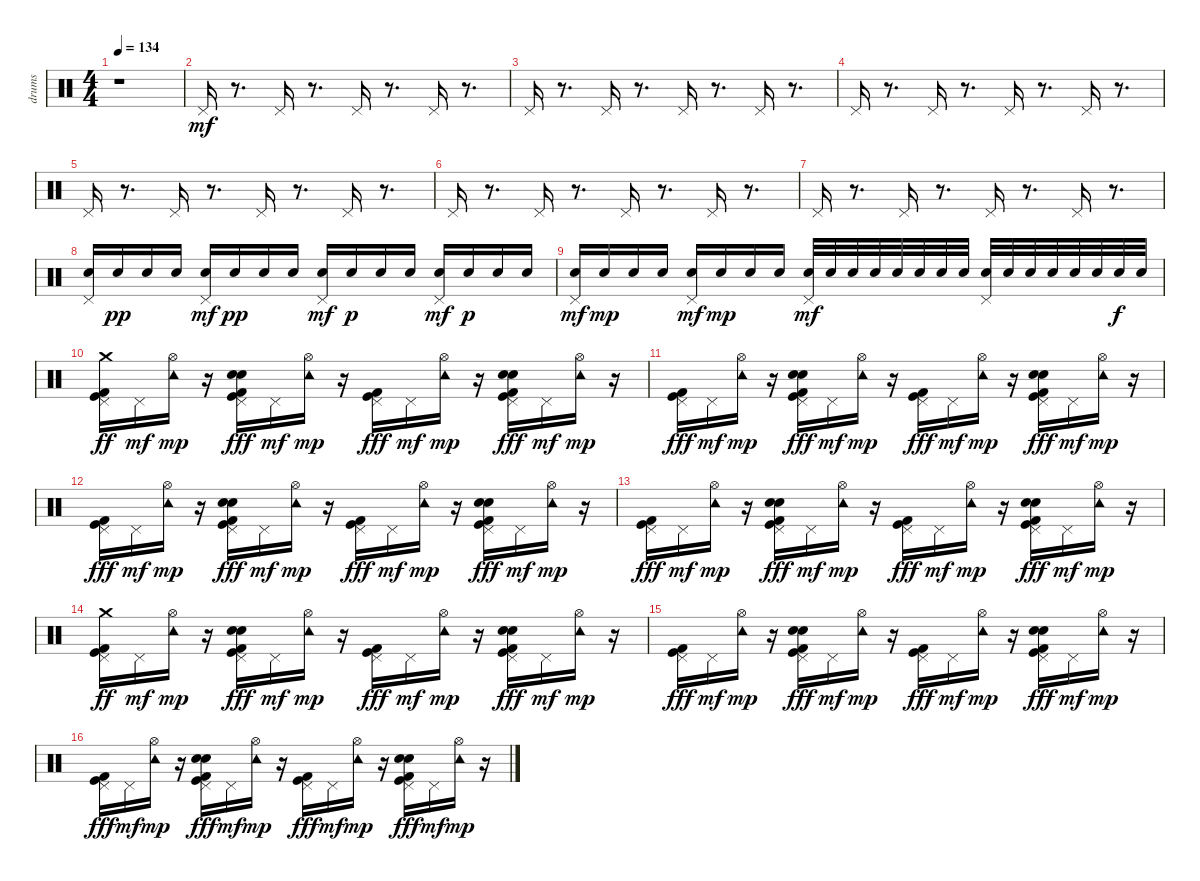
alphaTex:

\track ("drums" "drums") {instrument percussion}
\staff {score}
\articulation defaults
\ts (4 4)
\tempo 134
\clef neutral
\ks c
r.1{dy mf} |
"Pedal Hi-Hat (hit)".16 r.8{d} "Pedal Hi-Hat (hit)".16 r.8{d} "Pedal Hi-Hat (hit)".16 r.8{d} "Pedal Hi-Hat (hit)".16 r.8{d} |
"Pedal Hi-Hat (hit)".16 r.8{d} "Pedal Hi-Hat (hit)".16 r.8{d} "Pedal Hi-Hat (hit)".16 r.8{d} "Pedal Hi-Hat (hit)".16 r.8{d} |
"Pedal Hi-Hat (hit)".16 r.8{d} "Pedal Hi-Hat (hit)".16 r.8{d} "Pedal Hi-Hat (hit)".16 r.8{d} "Pedal Hi-Hat (hit)".16 r.8{d} |
"Pedal Hi-Hat (hit)".16 r.8{d} "Pedal Hi-Hat (hit)".16 r.8{d} "Pedal Hi-Hat (hit)".16 r.8{d} "Pedal Hi-Hat (hit)".16 r.8{d} |
"Pedal Hi-Hat (hit)".16 r.8{d} "Pedal Hi-Hat (hit)".16 r.8{d} "Pedal Hi-Hat (hit)".16 r.8{d} "Pedal Hi-Hat (hit)".16 r.8{d} |
"Pedal Hi-Hat (hit)".16 r.8{d} "Pedal Hi-Hat (hit)".16 r.8{d} "Pedal Hi-Hat (hit)".16 r.8{d} "Pedal Hi-Hat (hit)".16 r.8{d} |
("Electric Snare (hit)" "Pedal Hi-Hat (hit)").16 "Electric Snare (hit)".16{dy pp} "Electric Snare (hit)".16 "Electric Snare (hit)".16 ("Electric Snare (hit)" "Pedal Hi-Hat (hit)").16{dy mf} "Electric Snare (hit)".16{dy pp} "Electric Snare (hit)".16 "Electric Snare (hit)".16 ("Electric Snare (hit)" "Pedal Hi-Hat (hit)").16{dy mf} "Electric Snare (hit)".16{dy p} "Electric Snare (hit)".16 "Electric Snare (hit)".16 ("Electric Snare (hit)" "Pedal Hi-Hat (hit)").16{dy mf} "Electric Snare (hit)".16{dy p} "Electric Snare (hit)".16 "Electric Snare (hit)".16 |
("Electric Snare (hit)" "Pedal Hi-Hat (hit)").16{dy mf} "Electric Snare (hit)".16{dy mp} "Electric Snare (hit)".16 "Electric Snare (hit)".16 ("Electric Snare (hit)" "Pedal Hi-Hat (hit)").16{dy mf} "Electric Snare (hit)".16{dy mp} "Electric Snare (hit)".16 "Electric Snare (hit)".16 ("Electric Snare (hit)" "Pedal Hi-Hat (hit)").32{dy mf} "Electric Snare (hit)".32 "Electric Snare (hit)".32 "Electric Snare (hit)".32 "Electric Snare (hit)".32 "Electric Snare (hit)".32 "Electric Snare (hit)".32 "Electric Snare (hit)".32 ("Electric Snare (hit)" "Pedal Hi-Hat (hit)").32 "Electric Snare (hit)".32 "Electric Snare (hit)".32 "Electric Snare (hit)".32 "Electric Snare (hit)".32 "Electric Snare (hit)".32 "Electric Snare (hit)".32{dy f} "Electric Snare (hit)".32 |
("Kick (hit)" "Kick (hit) 2" "Pedal Hi-Hat (hit)" "Crash medium (hit)").16{dy ff} "Pedal Hi-Hat (hit)".16{dy mf} ("Hi-Hat (open)" "Tambourine (hit)").16{dy mp} r.16 ("Electric Snare (hit)" "Kick (hit)" "Kick (hit) 2" "Hand Clap (hit)" "Pedal Hi-Hat (hit)").16{dy fff} "Pedal Hi-Hat (hit)".16{dy mf} ("Hi-Hat (open)" "Tambourine (hit)").16{dy mp} r.16 ("Kick (hit)" "Kick (hit) 2" "Pedal Hi-Hat (hit)").16{dy fff} "Pedal Hi-Hat (hit)".16{dy mf} ("Hi-Hat (open)" "Tambourine (hit)").16{dy mp} r.16 ("Electric Snare (hit)" "Kick (hit)" "Kick (hit) 2" "Hand Clap (hit)" "Pedal Hi-Hat (hit)").16{dy fff} "Pedal Hi-Hat (hit)".16{dy mf} ("Hi-Hat (open)" "Tambourine (hit)").16{dy mp} r.16 |
("Kick (hit)" "Kick (hit) 2" "Pedal Hi-Hat (hit)").16{dy fff} "Pedal Hi-Hat (hit)".16{dy mf} ("Hi-Hat (open)" "Tambourine (hit)").16{dy mp} r.16 ("Electric Snare (hit)" "Kick (hit)" "Kick (hit) 2" "Hand Clap (hit)" "Pedal Hi-Hat (hit)").16{dy fff} "Pedal Hi-Hat (hit)".16{dy mf} ("Hi-Hat (open)" "Tambourine (hit)").16{dy mp} r.16 ("Kick (hit)" "Kick (hit) 2" "Pedal Hi-Hat (hit)").16{dy fff} "Pedal Hi-Hat (hit)".16{dy mf} ("Hi-Hat (open)" "Tambourine (hit)").16{dy mp} r.16 ("Electric Snare (hit)" "Kick (hit)" "Kick (hit) 2" "Hand Clap (hit)" "Pedal Hi-Hat (hit)").16{dy fff} "Pedal Hi-Hat (hit)".16{dy mf} ("Hi-Hat (open)" "Tambourine (hit)").16{dy mp} r.16 |
("Kick (hit)" "Kick (hit) 2" "Pedal Hi-Hat (hit)").16{dy fff} "Pedal Hi-Hat (hit)".16{dy mf} ("Hi-Hat (open)" "Tambourine (hit)").16{dy mp} r.16 ("Electric Snare (hit)" "Kick (hit)" "Kick (hit) 2" "Hand Clap (hit)" "Pedal Hi-Hat (hit)").16{dy fff} "Pedal Hi-Hat (hit)".16{dy mf} ("Hi-Hat (open)" "Tambourine (hit)").16{dy mp} r.16 ("Kick (hit)" "Kick (hit) 2" "Pedal Hi-Hat (hit)").16{dy fff} "Pedal Hi-Hat (hit)".16{dy mf} ("Hi-Hat (open)" "Tambourine (hit)").16{dy mp} r.16 ("Electric Snare (hit)" "Kick (hit)" "Kick (hit) 2" "Hand Clap (hit)" "Pedal Hi-Hat (hit)").16{dy fff} "Pedal Hi-Hat (hit)".16{dy mf} ("Hi-Hat (open)" "Tambourine (hit)").16{dy mp} r.16 |
("Kick (hit)" "Kick (hit) 2" "Pedal Hi-Hat (hit)").16{dy fff} "Pedal Hi-Hat (hit)".16{dy mf} ("Hi-Hat (open)" "Tambourine (hit)").16{dy mp} r.16 ("Electric Snare (hit)" "Kick (hit)" "Kick (hit) 2" "Hand Clap (hit)" "Pedal Hi-Hat (hit)").16{dy fff} "Pedal Hi-Hat (hit)".16{dy mf} ("Hi-Hat (open)" "Tambourine (hit)").16{dy mp} r.16 ("Kick (hit)" "Kick (hit) 2" "Pedal Hi-Hat (hit)").16{dy fff} "Pedal Hi-Hat (hit)".16{dy mf} ("Hi-Hat (open)" "Tambourine (hit)").16{dy mp} r.16 ("Electric Snare (hit)" "Kick (hit)" "Kick (hit) 2" "Hand Clap (hit)" "Pedal Hi-Hat (hit)").16{dy fff} "Pedal Hi-Hat (hit)".16{dy mf} ("Hi-Hat (open)" "Tambourine (hit)").16{dy mp} r.16 |
("Kick (hit)" "Kick (hit) 2" "Pedal Hi-Hat (hit)" "Crash medium (hit)").16{dy ff} "Pedal Hi-Hat (hit)".16{dy mf} ("Hi-Hat (open)" "Tambourine (hit)").16{dy mp} r.16 ("Electric Snare (hit)" "Kick (hit)" "Kick (hit) 2" "Hand Clap (hit)" "Pedal Hi-Hat (hit)").16{dy fff} "Pedal Hi-Hat (hit)".16{dy mf} ("Hi-Hat (open)" "Tambourine (hit)").16{dy mp} r.16 ("Kick (hit)" "Kick (hit) 2" "Pedal Hi-Hat (hit)").16{dy fff} "Pedal Hi-Hat (hit)".16{dy mf} ("Hi-Hat (open)" "Tambourine (hit)").16{dy mp} r.16 ("Electric Snare (hit)" "Kick (hit)" "Kick (hit) 2" "Hand Clap (hit)" "Pedal Hi-Hat (hit)").16{dy fff} "Pedal Hi-Hat (hit)".16{dy mf} ("Hi-Hat (open)" "Tambourine (hit)").16{dy mp} r.16 |
("Kick (hit)" "Kick (hit) 2" "Pedal Hi-Hat (hit)").16{dy fff} "Pedal Hi-Hat (hit)".16{dy mf} ("Hi-Hat (open)" "Tambourine (hit)").16{dy mp} r.16 ("Electric Snare (hit)" "Kick (hit)" "Kick (hit) 2" "Hand Clap (hit)" "Pedal Hi-Hat (hit)").16{dy fff} "Pedal Hi-Hat (hit)".16{dy mf} ("Hi-Hat (open)" "Tambourine (hit)").16{dy mp} r.16 ("Kick (hit)" "Kick (hit) 2" "Pedal Hi-Hat (hit)").16{dy fff} "Pedal Hi-Hat (hit)".16{dy mf} ("Hi-Hat (open)" "Tambourine (hit)").16{dy mp} r.16 ("Electric Snare (hit)" "Kick (hit)" "Kick (hit) 2" "Hand Clap (hit)" "Pedal Hi-Hat (hit)").16{dy fff} "Pedal Hi-Hat (hit)".16{dy mf} ("Hi-Hat (open)" "Tambourine (hit)").16{dy mp} r.16 |
("Kick (hit)" "Kick (hit) 2" "Pedal Hi-Hat (hit)").16{dy fff} "Pedal Hi-Hat (hit)".16{dy mf} ("Hi-Hat (open)" "Tambourine (hit)").16{dy mp} r.16 ("Electric Snare (hit)" "Kick (hit)" "Kick (hit) 2" "Hand Clap (hit)" "Pedal Hi-Hat (hit)").16{dy fff} "Pedal Hi-Hat (hit)".16{dy mf} ("Hi-Hat (open)" "Tambourine (hit)").16{dy mp} r.16 ("Kick (hit)" "Kick (hit) 2" "Pedal Hi-Hat (hit)").16{dy fff} "Pedal Hi-Hat (hit)".16{dy mf} ("Hi-Hat (open)" "Tambourine (hit)").16{dy mp} r.16 ("Electric Snare (hit)" "Kick (hit)" "Kick (hit) 2" "Hand Clap (hit)" "Pedal Hi-Hat (hit)").16{dy fff} "Pedal Hi-Hat (hit)".16{dy mf} ("Hi-Hat (open)" "Tambourine (hit)").16{dy mp} r.16
